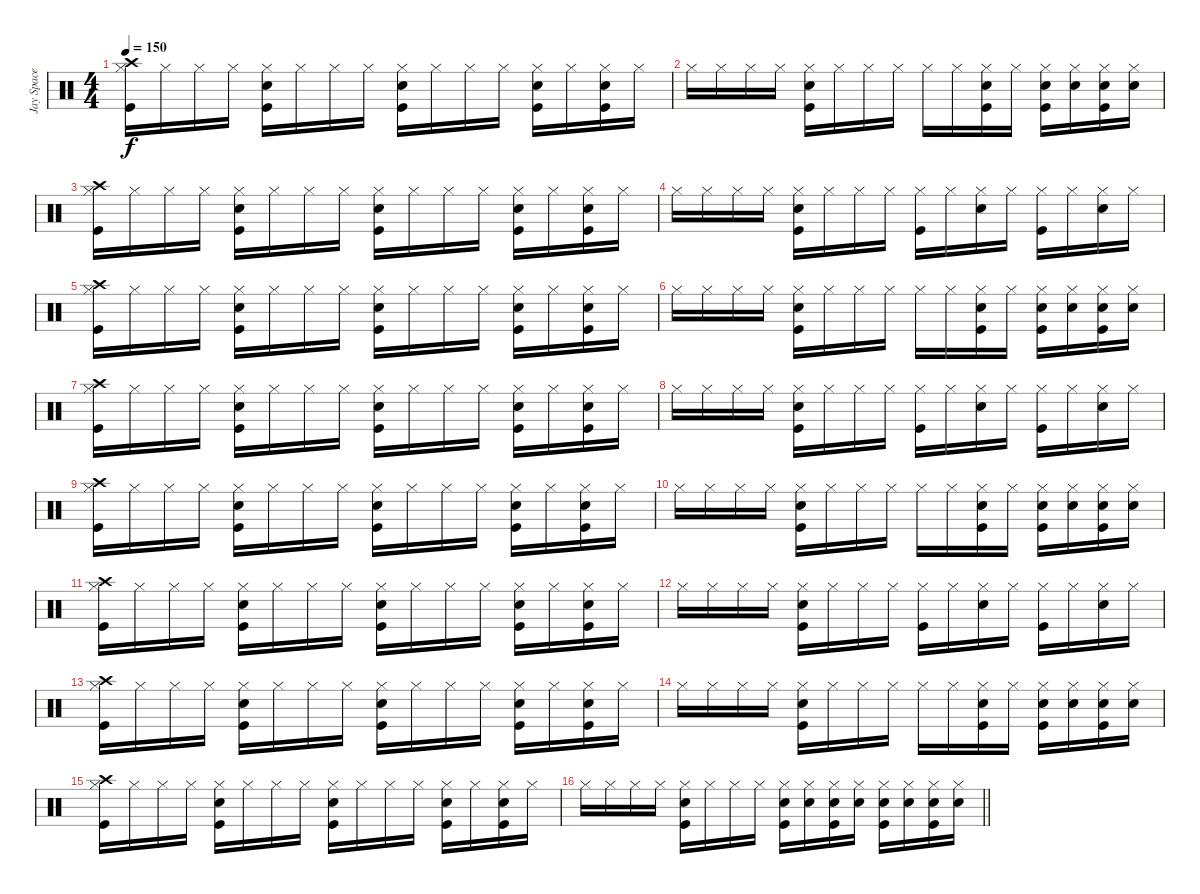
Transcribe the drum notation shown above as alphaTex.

\track ("Jay Space - Drums" "Jay Space ") {instrument percussion}
\staff {score}
\articulation defaults
\ts (4 4)
\tempo 150
\clef neutral
\ks c
("Hi-Hat (closed)" "Kick (hit)" "Crash high (hit)").16{dy f} "Hi-Hat (closed)".16 "Hi-Hat (closed)".16 "Hi-Hat (closed)".16 ("Hi-Hat (closed)" "Snare (hit) 2" "Kick (hit)").16 "Hi-Hat (closed)".16 "Hi-Hat (closed)".16 "Hi-Hat (closed)".16 ("Hi-Hat (closed)" "Snare (hit) 2" "Kick (hit)").16 "Hi-Hat (closed)".16 "Hi-Hat (closed)".16 "Hi-Hat (closed)".16 ("Hi-Hat (closed)" "Snare (hit) 2" "Kick (hit)").16 "Hi-Hat (closed)".16 ("Hi-Hat (closed)" "Snare (hit) 2" "Kick (hit)").16 "Hi-Hat (closed)".16 |
"Hi-Hat (closed)".16 "Hi-Hat (closed)".16 "Hi-Hat (closed)".16 "Hi-Hat (closed)".16 ("Hi-Hat (closed)" "Snare (hit) 2" "Kick (hit)").16 "Hi-Hat (closed)".16 "Hi-Hat (closed)".16 "Hi-Hat (closed)".16 "Hi-Hat (closed)".16 "Hi-Hat (closed)".16 ("Hi-Hat (closed)" "Snare (hit) 2" "Kick (hit)").16 "Hi-Hat (closed)".16 ("Hi-Hat (closed)" "Snare (hit) 2" "Kick (hit)").16 ("Hi-Hat (closed)" "Snare (hit) 2").16 ("Hi-Hat (closed)" "Snare (hit) 2" "Kick (hit)").16 ("Hi-Hat (closed)" "Snare (hit) 2").16 |
("Hi-Hat (closed)" "Kick (hit)" "Crash high (hit)").16 "Hi-Hat (closed)".16 "Hi-Hat (closed)".16 "Hi-Hat (closed)".16 ("Hi-Hat (closed)" "Snare (hit) 2" "Kick (hit)").16 "Hi-Hat (closed)".16 "Hi-Hat (closed)".16 "Hi-Hat (closed)".16 ("Hi-Hat (closed)" "Snare (hit) 2" "Kick (hit)").16 "Hi-Hat (closed)".16 "Hi-Hat (closed)".16 "Hi-Hat (closed)".16 ("Hi-Hat (closed)" "Snare (hit) 2" "Kick (hit)").16 "Hi-Hat (closed)".16 ("Hi-Hat (closed)" "Snare (hit) 2" "Kick (hit)").16 "Hi-Hat (closed)".16 |
"Hi-Hat (closed)".16 "Hi-Hat (closed)".16 "Hi-Hat (closed)".16 "Hi-Hat (closed)".16 ("Hi-Hat (closed)" "Snare (hit) 2" "Kick (hit)").16 "Hi-Hat (closed)".16 "Hi-Hat (closed)".16 "Hi-Hat (closed)".16 ("Hi-Hat (closed)" "Kick (hit)").16 "Hi-Hat (closed)".16 ("Hi-Hat (closed)" "Snare (hit) 2").16 "Hi-Hat (closed)".16 ("Hi-Hat (closed)" "Kick (hit)").16 "Hi-Hat (closed)".16 ("Hi-Hat (closed)" "Snare (hit) 2").16 "Hi-Hat (closed)".16 |
("Hi-Hat (closed)" "Kick (hit)" "Crash high (hit)").16 "Hi-Hat (closed)".16 "Hi-Hat (closed)".16 "Hi-Hat (closed)".16 ("Hi-Hat (closed)" "Snare (hit) 2" "Kick (hit)").16 "Hi-Hat (closed)".16 "Hi-Hat (closed)".16 "Hi-Hat (closed)".16 ("Hi-Hat (closed)" "Snare (hit) 2" "Kick (hit)").16 "Hi-Hat (closed)".16 "Hi-Hat (closed)".16 "Hi-Hat (closed)".16 ("Hi-Hat (closed)" "Snare (hit) 2" "Kick (hit)").16 "Hi-Hat (closed)".16 ("Hi-Hat (closed)" "Snare (hit) 2" "Kick (hit)").16 "Hi-Hat (closed)".16 |
"Hi-Hat (closed)".16 "Hi-Hat (closed)".16 "Hi-Hat (closed)".16 "Hi-Hat (closed)".16 ("Hi-Hat (closed)" "Snare (hit) 2" "Kick (hit)").16 "Hi-Hat (closed)".16 "Hi-Hat (closed)".16 "Hi-Hat (closed)".16 "Hi-Hat (closed)".16 "Hi-Hat (closed)".16 ("Hi-Hat (closed)" "Snare (hit) 2" "Kick (hit)").16 "Hi-Hat (closed)".16 ("Hi-Hat (closed)" "Snare (hit) 2" "Kick (hit)").16 ("Hi-Hat (closed)" "Snare (hit) 2").16 ("Hi-Hat (closed)" "Snare (hit) 2" "Kick (hit)").16 ("Hi-Hat (closed)" "Snare (hit) 2").16 |
("Hi-Hat (closed)" "Kick (hit)" "Crash high (hit)").16 "Hi-Hat (closed)".16 "Hi-Hat (closed)".16 "Hi-Hat (closed)".16 ("Hi-Hat (closed)" "Snare (hit) 2" "Kick (hit)").16 "Hi-Hat (closed)".16 "Hi-Hat (closed)".16 "Hi-Hat (closed)".16 ("Hi-Hat (closed)" "Snare (hit) 2" "Kick (hit)").16 "Hi-Hat (closed)".16 "Hi-Hat (closed)".16 "Hi-Hat (closed)".16 ("Hi-Hat (closed)" "Snare (hit) 2" "Kick (hit)").16 "Hi-Hat (closed)".16 ("Hi-Hat (closed)" "Snare (hit) 2" "Kick (hit)").16 "Hi-Hat (closed)".16 |
"Hi-Hat (closed)".16 "Hi-Hat (closed)".16 "Hi-Hat (closed)".16 "Hi-Hat (closed)".16 ("Hi-Hat (closed)" "Snare (hit) 2" "Kick (hit)").16 "Hi-Hat (closed)".16 "Hi-Hat (closed)".16 "Hi-Hat (closed)".16 ("Hi-Hat (closed)" "Kick (hit)").16 "Hi-Hat (closed)".16 ("Hi-Hat (closed)" "Snare (hit) 2").16 "Hi-Hat (closed)".16 ("Hi-Hat (closed)" "Kick (hit)").16 "Hi-Hat (closed)".16 ("Hi-Hat (closed)" "Snare (hit) 2").16 "Hi-Hat (closed)".16 |
("Hi-Hat (closed)" "Kick (hit)" "Crash high (hit)").16 "Hi-Hat (closed)".16 "Hi-Hat (closed)".16 "Hi-Hat (closed)".16 ("Hi-Hat (closed)" "Snare (hit) 2" "Kick (hit)").16 "Hi-Hat (closed)".16 "Hi-Hat (closed)".16 "Hi-Hat (closed)".16 ("Hi-Hat (closed)" "Snare (hit) 2" "Kick (hit)").16 "Hi-Hat (closed)".16 "Hi-Hat (closed)".16 "Hi-Hat (closed)".16 ("Hi-Hat (closed)" "Snare (hit) 2" "Kick (hit)").16 "Hi-Hat (closed)".16 ("Hi-Hat (closed)" "Snare (hit) 2" "Kick (hit)").16 "Hi-Hat (closed)".16 |
"Hi-Hat (closed)".16 "Hi-Hat (closed)".16 "Hi-Hat (closed)".16 "Hi-Hat (closed)".16 ("Hi-Hat (closed)" "Snare (hit) 2" "Kick (hit)").16 "Hi-Hat (closed)".16 "Hi-Hat (closed)".16 "Hi-Hat (closed)".16 "Hi-Hat (closed)".16 "Hi-Hat (closed)".16 ("Hi-Hat (closed)" "Snare (hit) 2" "Kick (hit)").16 "Hi-Hat (closed)".16 ("Hi-Hat (closed)" "Snare (hit) 2" "Kick (hit)").16 ("Hi-Hat (closed)" "Snare (hit) 2").16 ("Hi-Hat (closed)" "Snare (hit) 2" "Kick (hit)").16 ("Hi-Hat (closed)" "Snare (hit) 2").16 |
("Hi-Hat (closed)" "Kick (hit)" "Crash high (hit)").16 "Hi-Hat (closed)".16 "Hi-Hat (closed)".16 "Hi-Hat (closed)".16 ("Hi-Hat (closed)" "Snare (hit) 2" "Kick (hit)").16 "Hi-Hat (closed)".16 "Hi-Hat (closed)".16 "Hi-Hat (closed)".16 ("Hi-Hat (closed)" "Snare (hit) 2" "Kick (hit)").16 "Hi-Hat (closed)".16 "Hi-Hat (closed)".16 "Hi-Hat (closed)".16 ("Hi-Hat (closed)" "Snare (hit) 2" "Kick (hit)").16 "Hi-Hat (closed)".16 ("Hi-Hat (closed)" "Snare (hit) 2" "Kick (hit)").16 "Hi-Hat (closed)".16 |
"Hi-Hat (closed)".16 "Hi-Hat (closed)".16 "Hi-Hat (closed)".16 "Hi-Hat (closed)".16 ("Hi-Hat (closed)" "Snare (hit) 2" "Kick (hit)").16 "Hi-Hat (closed)".16 "Hi-Hat (closed)".16 "Hi-Hat (closed)".16 ("Hi-Hat (closed)" "Kick (hit)").16 "Hi-Hat (closed)".16 ("Hi-Hat (closed)" "Snare (hit) 2").16 "Hi-Hat (closed)".16 ("Hi-Hat (closed)" "Kick (hit)").16 "Hi-Hat (closed)".16 ("Hi-Hat (closed)" "Snare (hit) 2").16 "Hi-Hat (closed)".16 |
("Hi-Hat (closed)" "Kick (hit)" "Crash high (hit)").16 "Hi-Hat (closed)".16 "Hi-Hat (closed)".16 "Hi-Hat (closed)".16 ("Hi-Hat (closed)" "Snare (hit) 2" "Kick (hit)").16 "Hi-Hat (closed)".16 "Hi-Hat (closed)".16 "Hi-Hat (closed)".16 ("Hi-Hat (closed)" "Snare (hit) 2" "Kick (hit)").16 "Hi-Hat (closed)".16 "Hi-Hat (closed)".16 "Hi-Hat (closed)".16 ("Hi-Hat (closed)" "Snare (hit) 2" "Kick (hit)").16 "Hi-Hat (closed)".16 ("Hi-Hat (closed)" "Snare (hit) 2" "Kick (hit)").16 "Hi-Hat (closed)".16 |
"Hi-Hat (closed)".16 "Hi-Hat (closed)".16 "Hi-Hat (closed)".16 "Hi-Hat (closed)".16 ("Hi-Hat (closed)" "Snare (hit) 2" "Kick (hit)").16 "Hi-Hat (closed)".16 "Hi-Hat (closed)".16 "Hi-Hat (closed)".16 "Hi-Hat (closed)".16 "Hi-Hat (closed)".16 ("Hi-Hat (closed)" "Snare (hit) 2" "Kick (hit)").16 "Hi-Hat (closed)".16 ("Hi-Hat (closed)" "Snare (hit) 2" "Kick (hit)").16 ("Hi-Hat (closed)" "Snare (hit) 2").16 ("Hi-Hat (closed)" "Snare (hit) 2" "Kick (hit)").16 ("Hi-Hat (closed)" "Snare (hit) 2").16 |
("Hi-Hat (closed)" "Kick (hit)" "Crash high (hit)").16 "Hi-Hat (closed)".16 "Hi-Hat (closed)".16 "Hi-Hat (closed)".16 ("Hi-Hat (closed)" "Snare (hit) 2" "Kick (hit)").16 "Hi-Hat (closed)".16 "Hi-Hat (closed)".16 "Hi-Hat (closed)".16 ("Hi-Hat (closed)" "Snare (hit) 2" "Kick (hit)").16 "Hi-Hat (closed)".16 "Hi-Hat (closed)".16 "Hi-Hat (closed)".16 ("Hi-Hat (closed)" "Snare (hit) 2" "Kick (hit)").16 "Hi-Hat (closed)".16 ("Hi-Hat (closed)" "Snare (hit) 2" "Kick (hit)").16 "Hi-Hat (closed)".16 |
\barLineRight lightlight "Hi-Hat (closed)".16 "Hi-Hat (closed)".16 "Hi-Hat (closed)".16 "Hi-Hat (closed)".16
("Hi-Hat (closed)" "Snare (hit) 2" "Kick (hit)").16 "Hi-Hat (closed)".16 "Hi-Hat (closed)".16 "Hi-Hat (closed)".16 ("Hi-Hat (closed)" "Snare (hit) 2" "Kick (hit)").16 ("Hi-Hat (closed)" "Snare (hit) 2").16 ("Hi-Hat (closed)" "Snare (hit) 2" "Kick (hit)").16 ("Hi-Hat (closed)" "Snare (hit) 2").16 ("Hi-Hat (closed)" "Snare (hit) 2" "Kick (hit)").16 ("Hi-Hat (closed)" "Snare (hit) 2").16 ("Hi-Hat (closed)" "Snare (hit) 2" "Kick (hit)").16 ("Hi-Hat (closed)" "Snare (hit) 2").16
